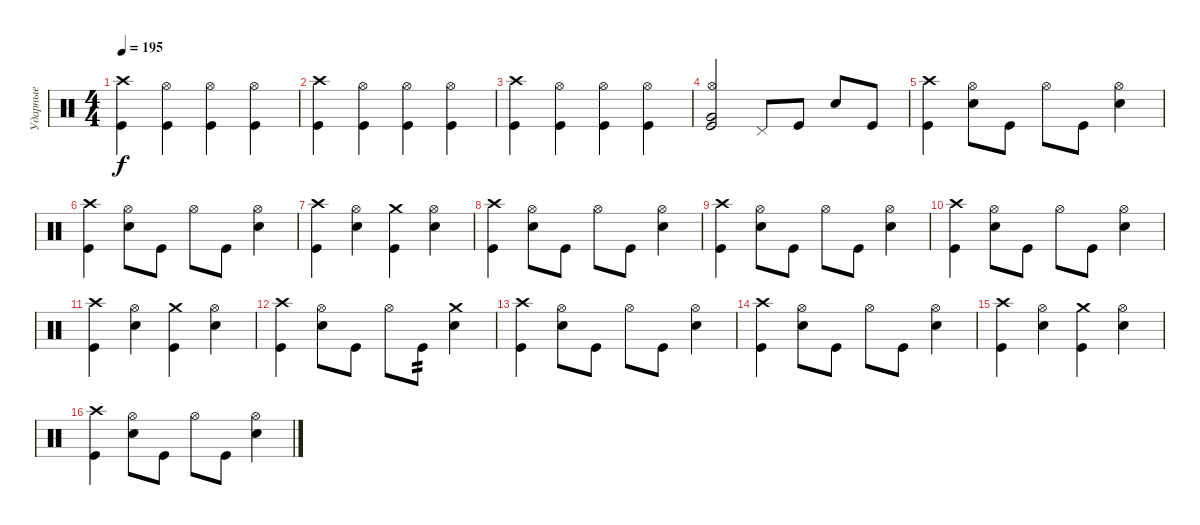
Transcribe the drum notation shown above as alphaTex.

\track ("Ударные" "Ударные") {instrument percussion}
\staff {score}
\articulation defaults
\ts (4 4)
\tempo 195
\clef neutral
\ks c
("Kick (hit)" "Crash high (hit)").4{dy f} ("Kick (hit)" "Hi-Hat (open)").4 ("Kick (hit)" "Hi-Hat (open)").4 ("Kick (hit)" "Hi-Hat (open)").4 |
("Kick (hit)" "Crash high (hit)").4 ("Kick (hit)" "Hi-Hat (open)").4 ("Kick (hit)" "Hi-Hat (open)").4 ("Kick (hit)" "Hi-Hat (open)").4 |
("Kick (hit)" "Crash high (hit)").4 ("Kick (hit)" "Hi-Hat (open)").4 ("Kick (hit)" "Hi-Hat (open)").4 ("Kick (hit)" "Hi-Hat (open)").4 |
("Hi-Hat (open)" "Kick (hit)" "Very Low Tom (hit)").2 "Pedal Hi-Hat (hit)".8 "Kick (hit)".8 "Snare (hit) 2".8 "Kick (hit)".8 |
("Kick (hit)" "Crash high (hit)").4 ("Snare (hit) 2" "Hi-Hat (open)").8 "Kick (hit)".8 "Hi-Hat (open)".8 "Kick (hit)".8 ("Snare (hit) 2" "Hi-Hat (open)").4 |
("Kick (hit)" "Crash high (hit)").4 ("Snare (hit) 2" "Hi-Hat (open)").8 "Kick (hit)".8 "Hi-Hat (open)".8 "Kick (hit)".8 ("Snare (hit) 2" "Hi-Hat (open)").4 |
("Kick (hit)" "Crash high (hit)").4 ("Snare (hit) 2" "Hi-Hat (open)").4 ("Kick (hit)" "Crash medium (hit)").4 ("Snare (hit) 2" "Hi-Hat (open)").4 |
("Kick (hit)" "Crash high (hit)").4 ("Snare (hit) 2" "Hi-Hat (open)").8 "Kick (hit)".8 "Hi-Hat (open)".8 "Kick (hit)".8 ("Snare (hit) 2" "Hi-Hat (open)").4 |
("Kick (hit)" "Crash high (hit)").4 ("Snare (hit) 2" "Hi-Hat (open)").8 "Kick (hit)".8 "Hi-Hat (open)".8 "Kick (hit)".8 ("Snare (hit) 2" "Hi-Hat (open)").4 |
("Kick (hit)" "Crash high (hit)").4 ("Snare (hit) 2" "Hi-Hat (open)").8 "Kick (hit)".8 "Hi-Hat (open)".8 "Kick (hit)".8 ("Snare (hit) 2" "Hi-Hat (open)").4 |
("Kick (hit)" "Crash high (hit)").4 ("Snare (hit) 2" "Hi-Hat (open)").4 ("Kick (hit)" "Crash medium (hit)").4 ("Snare (hit) 2" "Hi-Hat (open)").4 |
("Kick (hit)" "Crash high (hit)").4 ("Snare (hit) 2" "Hi-Hat (open)").8 "Kick (hit)".8 "Hi-Hat (open)".8 "Kick (hit)".8{tp 2} ("Snare (hit) 2" "Crash medium (hit)").4 |
("Kick (hit)" "Crash high (hit)").4 ("Snare (hit) 2" "Hi-Hat (open)").8 "Kick (hit)".8 "Hi-Hat (open)".8 "Kick (hit)".8 ("Snare (hit) 2" "Hi-Hat (open)").4 |
("Kick (hit)" "Crash high (hit)").4 ("Snare (hit) 2" "Hi-Hat (open)").8 "Kick (hit)".8 "Hi-Hat (open)".8 "Kick (hit)".8 ("Snare (hit) 2" "Hi-Hat (open)").4 |
("Kick (hit)" "Crash high (hit)").4 ("Snare (hit) 2" "Hi-Hat (open)").4 ("Kick (hit)" "Crash medium (hit)").4 ("Snare (hit) 2" "Hi-Hat (open)").4 |
("Kick (hit)" "Crash high (hit)").4 ("Snare (hit) 2" "Hi-Hat (open)").8 "Kick (hit)".8 "Hi-Hat (open)".8 "Kick (hit)".8 ("Snare (hit) 2" "Hi-Hat (open)").4
